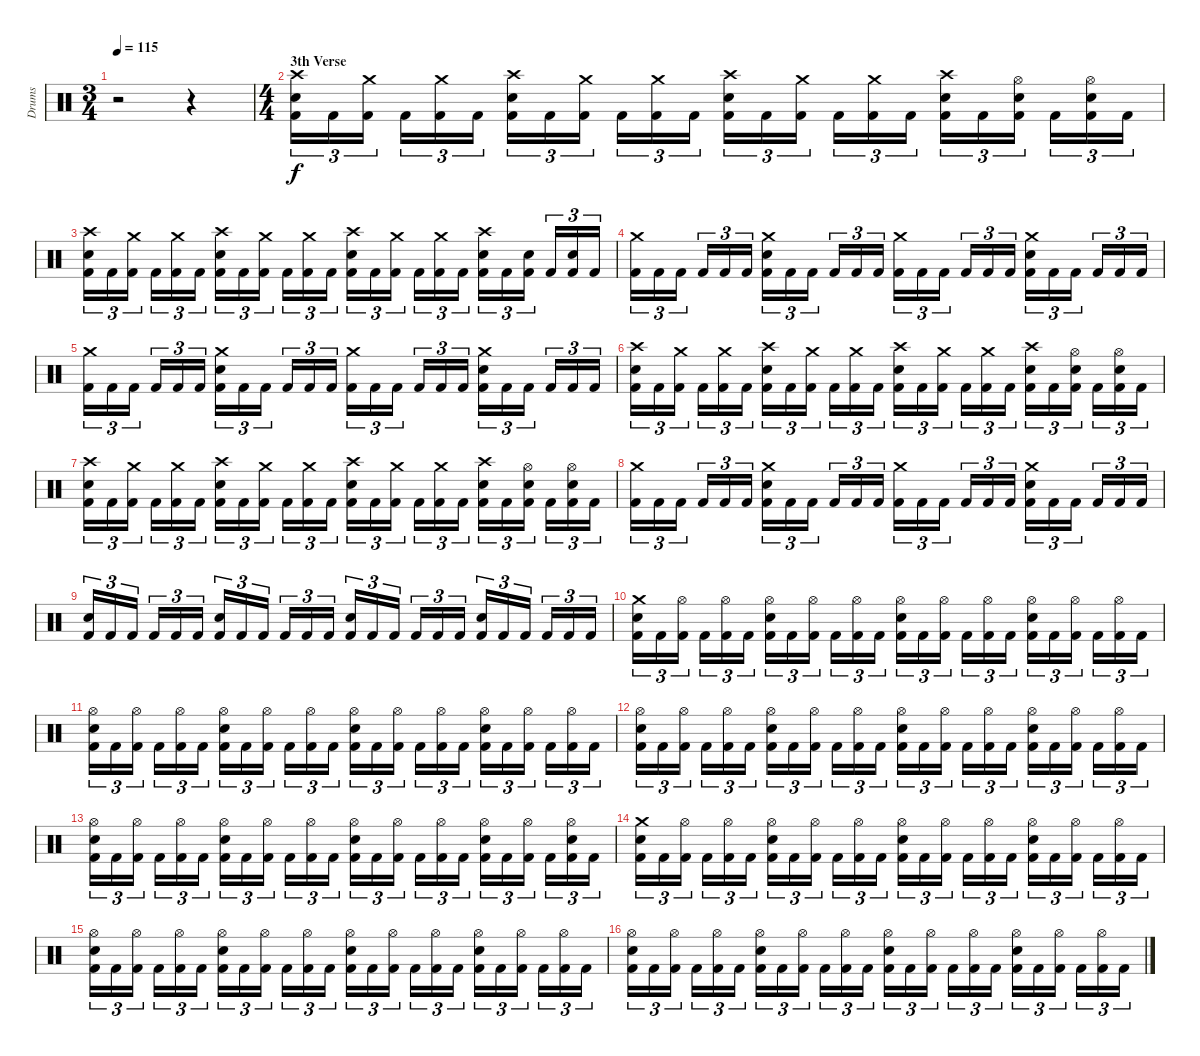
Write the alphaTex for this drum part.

\track ("Drums" "Drums") {instrument percussion}
\staff {score}
\articulation defaults
\ts (3 4)
\tempo 115
\clef neutral
\ks c
r.2{dy f} r.4 |
\ts (4 4)
\section ("" "3th Verse")
("Kick (hit) 2" "Electric Snare (hit)" "Crash high (hit)").16{tu (3 2)} "Kick (hit) 2".16{tu (3 2)} ("Kick (hit) 2" "Crash medium (hit)").16{tu (3 2)} "Kick (hit) 2".16{tu (3 2)} ("Kick (hit) 2" "Crash medium (hit)").16{tu (3 2)} "Kick (hit) 2".16{tu (3 2)} ("Kick (hit) 2" "Electric Snare (hit)" "Crash high (hit)").16{tu (3 2)} "Kick (hit) 2".16{tu (3 2)} ("Kick (hit) 2" "Crash medium (hit)").16{tu (3 2)} "Kick (hit) 2".16{tu (3 2)} ("Kick (hit) 2" "Crash medium (hit)").16{tu (3 2)} "Kick (hit) 2".16{tu (3 2)} ("Kick (hit) 2" "Electric Snare (hit)" "Crash high (hit)").16{tu (3 2)} "Kick (hit) 2".16{tu (3 2)} ("Kick (hit) 2" "Crash medium (hit)").16{tu (3 2)} "Kick (hit) 2".16{tu (3 2)} ("Kick (hit) 2" "Crash medium (hit)").16{tu (3 2)} "Kick (hit) 2".16{tu (3 2)} ("Kick (hit) 2" "Electric Snare (hit)" "Crash high (hit)").16{tu (3 2)} "Kick (hit) 2".16{tu (3 2)} ("Kick (hit) 2" "Electric Snare (hit)" "Hi-Hat (open)").16{tu (3 2)} "Kick (hit) 2".16{tu (3 2)} ("Kick (hit) 2" "Electric Snare (hit)" "Hi-Hat (open)").16{tu (3 2)} "Kick (hit) 2".16{tu (3 2)} |
("Kick (hit) 2" "Electric Snare (hit)" "Crash high (hit)").16{tu (3 2)} "Kick (hit) 2".16{tu (3 2)} ("Kick (hit) 2" "Crash medium (hit)").16{tu (3 2)} "Kick (hit) 2".16{tu (3 2)} ("Kick (hit) 2" "Crash medium (hit)").16{tu (3 2)} "Kick (hit) 2".16{tu (3 2)} ("Kick (hit) 2" "Electric Snare (hit)" "Crash high (hit)").16{tu (3 2)} "Kick (hit) 2".16{tu (3 2)} ("Kick (hit) 2" "Crash medium (hit)").16{tu (3 2)} "Kick (hit) 2".16{tu (3 2)} ("Kick (hit) 2" "Crash medium (hit)").16{tu (3 2)} "Kick (hit) 2".16{tu (3 2)} ("Kick (hit) 2" "Electric Snare (hit)" "Crash high (hit)").16{tu (3 2)} "Kick (hit) 2".16{tu (3 2)} ("Kick (hit) 2" "Crash medium (hit)").16{tu (3 2)} "Kick (hit) 2".16{tu (3 2)} ("Kick (hit) 2" "Crash medium (hit)").16{tu (3 2)} "Kick (hit) 2".16{tu (3 2)} ("Kick (hit) 2" "Electric Snare (hit)" "Crash high (hit)").16{tu (3 2)} "Kick (hit) 2".16{tu (3 2)} ("Kick (hit) 2" "Electric Snare (hit)").16{tu (3 2)} "Kick (hit) 2".16{tu (3 2)} ("Kick (hit) 2" "Electric Snare (hit)").16{tu (3 2)} "Kick (hit) 2".16{tu (3 2)} |
("Kick (hit) 2" "Crash medium (hit)").16{tu (3 2)} "Kick (hit) 2".16{tu (3 2)} "Kick (hit) 2".16{tu (3 2)} "Kick (hit) 2".16{tu (3 2)} "Kick (hit) 2".16{tu (3 2)} "Kick (hit) 2".16{tu (3 2)} ("Kick (hit) 2" "Electric Snare (hit)" "Crash medium (hit)").16{tu (3 2)} "Kick (hit) 2".16{tu (3 2)} "Kick (hit) 2".16{tu (3 2)} "Kick (hit) 2".16{tu (3 2)} "Kick (hit) 2".16{tu (3 2)} "Kick (hit) 2".16{tu (3 2)} ("Kick (hit) 2" "Crash medium (hit)").16{tu (3 2)} "Kick (hit) 2".16{tu (3 2)} "Kick (hit) 2".16{tu (3 2)} "Kick (hit) 2".16{tu (3 2)} "Kick (hit) 2".16{tu (3 2)} "Kick (hit) 2".16{tu (3 2)} ("Kick (hit) 2" "Electric Snare (hit)" "Crash medium (hit)").16{tu (3 2)} "Kick (hit) 2".16{tu (3 2)} "Kick (hit) 2".16{tu (3 2)} "Kick (hit) 2".16{tu (3 2)} "Kick (hit) 2".16{tu (3 2)} "Kick (hit) 2".16{tu (3 2)} |
("Kick (hit) 2" "Crash medium (hit)").16{tu (3 2)} "Kick (hit) 2".16{tu (3 2)} "Kick (hit) 2".16{tu (3 2)} "Kick (hit) 2".16{tu (3 2)} "Kick (hit) 2".16{tu (3 2)} "Kick (hit) 2".16{tu (3 2)} ("Kick (hit) 2" "Electric Snare (hit)" "Crash medium (hit)").16{tu (3 2)} "Kick (hit) 2".16{tu (3 2)} "Kick (hit) 2".16{tu (3 2)} "Kick (hit) 2".16{tu (3 2)} "Kick (hit) 2".16{tu (3 2)} "Kick (hit) 2".16{tu (3 2)} ("Kick (hit) 2" "Crash medium (hit)").16{tu (3 2)} "Kick (hit) 2".16{tu (3 2)} "Kick (hit) 2".16{tu (3 2)} "Kick (hit) 2".16{tu (3 2)} "Kick (hit) 2".16{tu (3 2)} "Kick (hit) 2".16{tu (3 2)} ("Kick (hit) 2" "Electric Snare (hit)" "Crash medium (hit)").16{tu (3 2)} "Kick (hit) 2".16{tu (3 2)} "Kick (hit) 2".16{tu (3 2)} "Kick (hit) 2".16{tu (3 2)} "Kick (hit) 2".16{tu (3 2)} "Kick (hit) 2".16{tu (3 2)} |
("Kick (hit) 2" "Electric Snare (hit)" "Crash high (hit)").16{tu (3 2)} "Kick (hit) 2".16{tu (3 2)} ("Kick (hit) 2" "Crash medium (hit)").16{tu (3 2)} "Kick (hit) 2".16{tu (3 2)} ("Kick (hit) 2" "Crash medium (hit)").16{tu (3 2)} "Kick (hit) 2".16{tu (3 2)} ("Kick (hit) 2" "Electric Snare (hit)" "Crash high (hit)").16{tu (3 2)} "Kick (hit) 2".16{tu (3 2)} ("Kick (hit) 2" "Crash medium (hit)").16{tu (3 2)} "Kick (hit) 2".16{tu (3 2)} ("Kick (hit) 2" "Crash medium (hit)").16{tu (3 2)} "Kick (hit) 2".16{tu (3 2)} ("Kick (hit) 2" "Electric Snare (hit)" "Crash high (hit)").16{tu (3 2)} "Kick (hit) 2".16{tu (3 2)} ("Kick (hit) 2" "Crash medium (hit)").16{tu (3 2)} "Kick (hit) 2".16{tu (3 2)} ("Kick (hit) 2" "Crash medium (hit)").16{tu (3 2)} "Kick (hit) 2".16{tu (3 2)} ("Kick (hit) 2" "Electric Snare (hit)" "Crash high (hit)").16{tu (3 2)} "Kick (hit) 2".16{tu (3 2)} ("Kick (hit) 2" "Electric Snare (hit)" "Hi-Hat (open)").16{tu (3 2)} "Kick (hit) 2".16{tu (3 2)} ("Kick (hit) 2" "Electric Snare (hit)" "Hi-Hat (open)").16{tu (3 2)} "Kick (hit) 2".16{tu (3 2)} |
("Kick (hit) 2" "Electric Snare (hit)" "Crash high (hit)").16{tu (3 2)} "Kick (hit) 2".16{tu (3 2)} ("Kick (hit) 2" "Crash medium (hit)").16{tu (3 2)} "Kick (hit) 2".16{tu (3 2)} ("Kick (hit) 2" "Crash medium (hit)").16{tu (3 2)} "Kick (hit) 2".16{tu (3 2)} ("Kick (hit) 2" "Electric Snare (hit)" "Crash high (hit)").16{tu (3 2)} "Kick (hit) 2".16{tu (3 2)} ("Kick (hit) 2" "Crash medium (hit)").16{tu (3 2)} "Kick (hit) 2".16{tu (3 2)} ("Kick (hit) 2" "Crash medium (hit)").16{tu (3 2)} "Kick (hit) 2".16{tu (3 2)} ("Kick (hit) 2" "Electric Snare (hit)" "Crash high (hit)").16{tu (3 2)} "Kick (hit) 2".16{tu (3 2)} ("Kick (hit) 2" "Crash medium (hit)").16{tu (3 2)} "Kick (hit) 2".16{tu (3 2)} ("Kick (hit) 2" "Crash medium (hit)").16{tu (3 2)} "Kick (hit) 2".16{tu (3 2)} ("Kick (hit) 2" "Electric Snare (hit)" "Crash high (hit)").16{tu (3 2)} "Kick (hit) 2".16{tu (3 2)} ("Kick (hit) 2" "Electric Snare (hit)" "Hi-Hat (open)").16{tu (3 2)} "Kick (hit) 2".16{tu (3 2)} ("Kick (hit) 2" "Electric Snare (hit)" "Hi-Hat (open)").16{tu (3 2)} "Kick (hit) 2".16{tu (3 2)} |
("Kick (hit) 2" "Crash medium (hit)").16{tu (3 2)} "Kick (hit) 2".16{tu (3 2)} "Kick (hit) 2".16{tu (3 2)} "Kick (hit) 2".16{tu (3 2)} "Kick (hit) 2".16{tu (3 2)} "Kick (hit) 2".16{tu (3 2)} ("Kick (hit) 2" "Electric Snare (hit)" "Crash medium (hit)").16{tu (3 2)} "Kick (hit) 2".16{tu (3 2)} "Kick (hit) 2".16{tu (3 2)} "Kick (hit) 2".16{tu (3 2)} "Kick (hit) 2".16{tu (3 2)} "Kick (hit) 2".16{tu (3 2)} ("Kick (hit) 2" "Crash medium (hit)").16{tu (3 2)} "Kick (hit) 2".16{tu (3 2)} "Kick (hit) 2".16{tu (3 2)} "Kick (hit) 2".16{tu (3 2)} "Kick (hit) 2".16{tu (3 2)} "Kick (hit) 2".16{tu (3 2)} ("Kick (hit) 2" "Electric Snare (hit)" "Crash medium (hit)").16{tu (3 2)} "Kick (hit) 2".16{tu (3 2)} "Kick (hit) 2".16{tu (3 2)} "Kick (hit) 2".16{tu (3 2)} "Kick (hit) 2".16{tu (3 2)} "Kick (hit) 2".16{tu (3 2)} |
("Kick (hit) 2" "Electric Snare (hit)").16{tu (3 2)} "Kick (hit) 2".16{tu (3 2)} "Kick (hit) 2".16{tu (3 2)} "Kick (hit) 2".16{tu (3 2)} "Kick (hit) 2".16{tu (3 2)} "Kick (hit) 2".16{tu (3 2)} ("Kick (hit) 2" "Electric Snare (hit)").16{tu (3 2)} "Kick (hit) 2".16{tu (3 2)} "Kick (hit) 2".16{tu (3 2)} "Kick (hit) 2".16{tu (3 2)} "Kick (hit) 2".16{tu (3 2)} "Kick (hit) 2".16{tu (3 2)} ("Kick (hit) 2" "Electric Snare (hit)").16{tu (3 2)} "Kick (hit) 2".16{tu (3 2)} "Kick (hit) 2".16{tu (3 2)} "Kick (hit) 2".16{tu (3 2)} "Kick (hit) 2".16{tu (3 2)} "Kick (hit) 2".16{tu (3 2)} ("Kick (hit) 2" "Electric Snare (hit)").16{tu (3 2)} "Kick (hit) 2".16{tu (3 2)} "Kick (hit) 2".16{tu (3 2)} "Kick (hit) 2".16{tu (3 2)} "Kick (hit) 2".16{tu (3 2)} "Kick (hit) 2".16{tu (3 2)} |
("Kick (hit) 2" "Electric Snare (hit)" "Crash medium (hit)").16{tu (3 2)} "Kick (hit) 2".16{tu (3 2)} ("Kick (hit) 2" "Hi-Hat (open)").16{tu (3 2)} "Kick (hit) 2".16{tu (3 2)} ("Kick (hit) 2" "Hi-Hat (open)").16{tu (3 2)} "Kick (hit) 2".16{tu (3 2)} ("Kick (hit) 2" "Electric Snare (hit)" "Hi-Hat (open)").16{tu (3 2)} "Kick (hit) 2".16{tu (3 2)} ("Kick (hit) 2" "Hi-Hat (open)").16{tu (3 2)} "Kick (hit) 2".16{tu (3 2)} ("Kick (hit) 2" "Hi-Hat (open)").16{tu (3 2)} "Kick (hit) 2".16{tu (3 2)} ("Kick (hit) 2" "Electric Snare (hit)" "Hi-Hat (open)").16{tu (3 2)} "Kick (hit) 2".16{tu (3 2)} ("Kick (hit) 2" "Hi-Hat (open)").16{tu (3 2)} "Kick (hit) 2".16{tu (3 2)} ("Kick (hit) 2" "Hi-Hat (open)").16{tu (3 2)} "Kick (hit) 2".16{tu (3 2)} ("Kick (hit) 2" "Electric Snare (hit)" "Hi-Hat (open)").16{tu (3 2)} "Kick (hit) 2".16{tu (3 2)} ("Kick (hit) 2" "Hi-Hat (open)").16{tu (3 2)} "Kick (hit) 2".16{tu (3 2)} ("Kick (hit) 2" "Hi-Hat (open)").16{tu (3 2)} "Kick (hit) 2".16{tu (3 2)} |
("Kick (hit) 2" "Electric Snare (hit)" "Hi-Hat (open)").16{tu (3 2)} "Kick (hit) 2".16{tu (3 2)} ("Kick (hit) 2" "Hi-Hat (open)").16{tu (3 2)} "Kick (hit) 2".16{tu (3 2)} ("Kick (hit) 2" "Hi-Hat (open)").16{tu (3 2)} "Kick (hit) 2".16{tu (3 2)} ("Kick (hit) 2" "Electric Snare (hit)" "Hi-Hat (open)").16{tu (3 2)} "Kick (hit) 2".16{tu (3 2)} ("Kick (hit) 2" "Hi-Hat (open)").16{tu (3 2)} "Kick (hit) 2".16{tu (3 2)} ("Kick (hit) 2" "Hi-Hat (open)").16{tu (3 2)} "Kick (hit) 2".16{tu (3 2)} ("Kick (hit) 2" "Electric Snare (hit)" "Hi-Hat (open)").16{tu (3 2)} "Kick (hit) 2".16{tu (3 2)} ("Kick (hit) 2" "Hi-Hat (open)").16{tu (3 2)} "Kick (hit) 2".16{tu (3 2)} ("Kick (hit) 2" "Hi-Hat (open)").16{tu (3 2)} "Kick (hit) 2".16{tu (3 2)} ("Kick (hit) 2" "Electric Snare (hit)" "Hi-Hat (open)").16{tu (3 2)} "Kick (hit) 2".16{tu (3 2)} ("Kick (hit) 2" "Hi-Hat (open)").16{tu (3 2)} "Kick (hit) 2".16{tu (3 2)} ("Kick (hit) 2" "Hi-Hat (open)").16{tu (3 2)} "Kick (hit) 2".16{tu (3 2)} |
("Kick (hit) 2" "Electric Snare (hit)" "Hi-Hat (open)").16{tu (3 2)} "Kick (hit) 2".16{tu (3 2)} ("Kick (hit) 2" "Hi-Hat (open)").16{tu (3 2)} "Kick (hit) 2".16{tu (3 2)} ("Kick (hit) 2" "Hi-Hat (open)").16{tu (3 2)} "Kick (hit) 2".16{tu (3 2)} ("Kick (hit) 2" "Electric Snare (hit)" "Hi-Hat (open)").16{tu (3 2)} "Kick (hit) 2".16{tu (3 2)} ("Kick (hit) 2" "Hi-Hat (open)").16{tu (3 2)} "Kick (hit) 2".16{tu (3 2)} ("Kick (hit) 2" "Hi-Hat (open)").16{tu (3 2)} "Kick (hit) 2".16{tu (3 2)} ("Kick (hit) 2" "Electric Snare (hit)" "Hi-Hat (open)").16{tu (3 2)} "Kick (hit) 2".16{tu (3 2)} ("Kick (hit) 2" "Hi-Hat (open)").16{tu (3 2)} "Kick (hit) 2".16{tu (3 2)} ("Kick (hit) 2" "Hi-Hat (open)").16{tu (3 2)} "Kick (hit) 2".16{tu (3 2)} ("Kick (hit) 2" "Electric Snare (hit)" "Hi-Hat (open)").16{tu (3 2)} "Kick (hit) 2".16{tu (3 2)} ("Kick (hit) 2" "Hi-Hat (open)").16{tu (3 2)} "Kick (hit) 2".16{tu (3 2)} ("Kick (hit) 2" "Hi-Hat (open)").16{tu (3 2)} "Kick (hit) 2".16{tu (3 2)} |
("Kick (hit) 2" "Electric Snare (hit)" "Hi-Hat (open)").16{tu (3 2)} "Kick (hit) 2".16{tu (3 2)} ("Kick (hit) 2" "Hi-Hat (open)").16{tu (3 2)} "Kick (hit) 2".16{tu (3 2)} ("Kick (hit) 2" "Hi-Hat (open)").16{tu (3 2)} "Kick (hit) 2".16{tu (3 2)} ("Kick (hit) 2" "Electric Snare (hit)" "Hi-Hat (open)").16{tu (3 2)} "Kick (hit) 2".16{tu (3 2)} ("Kick (hit) 2" "Hi-Hat (open)").16{tu (3 2)} "Kick (hit) 2".16{tu (3 2)} ("Kick (hit) 2" "Hi-Hat (open)").16{tu (3 2)} "Kick (hit) 2".16{tu (3 2)} ("Kick (hit) 2" "Electric Snare (hit)" "Hi-Hat (open)").16{tu (3 2)} "Kick (hit) 2".16{tu (3 2)} ("Kick (hit) 2" "Hi-Hat (open)").16{tu (3 2)} "Kick (hit) 2".16{tu (3 2)} ("Kick (hit) 2" "Hi-Hat (open)").16{tu (3 2)} "Kick (hit) 2".16{tu (3 2)} ("Kick (hit) 2" "Electric Snare (hit)" "Hi-Hat (open)").16{tu (3 2)} "Kick (hit) 2".16{tu (3 2)} ("Kick (hit) 2" "Hi-Hat (open)").16{tu (3 2)} "Kick (hit) 2".16{tu (3 2)} ("Kick (hit) 2" "Electric Snare (hit)" "Hi-Hat (open)").16{tu (3 2)} "Kick (hit) 2".16{tu (3 2)} |
("Kick (hit) 2" "Electric Snare (hit)" "Crash medium (hit)").16{tu (3 2)} "Kick (hit) 2".16{tu (3 2)} ("Kick (hit) 2" "Hi-Hat (open)").16{tu (3 2)} "Kick (hit) 2".16{tu (3 2)} ("Kick (hit) 2" "Hi-Hat (open)").16{tu (3 2)} "Kick (hit) 2".16{tu (3 2)} ("Kick (hit) 2" "Electric Snare (hit)" "Hi-Hat (open)").16{tu (3 2)} "Kick (hit) 2".16{tu (3 2)} ("Kick (hit) 2" "Hi-Hat (open)").16{tu (3 2)} "Kick (hit) 2".16{tu (3 2)} ("Kick (hit) 2" "Hi-Hat (open)").16{tu (3 2)} "Kick (hit) 2".16{tu (3 2)} ("Kick (hit) 2" "Electric Snare (hit)" "Hi-Hat (open)").16{tu (3 2)} "Kick (hit) 2".16{tu (3 2)} ("Kick (hit) 2" "Hi-Hat (open)").16{tu (3 2)} "Kick (hit) 2".16{tu (3 2)} ("Kick (hit) 2" "Hi-Hat (open)").16{tu (3 2)} "Kick (hit) 2".16{tu (3 2)} ("Kick (hit) 2" "Electric Snare (hit)" "Hi-Hat (open)").16{tu (3 2)} "Kick (hit) 2".16{tu (3 2)} ("Kick (hit) 2" "Hi-Hat (open)").16{tu (3 2)} "Kick (hit) 2".16{tu (3 2)} ("Kick (hit) 2" "Hi-Hat (open)").16{tu (3 2)} "Kick (hit) 2".16{tu (3 2)} |
("Kick (hit) 2" "Electric Snare (hit)" "Hi-Hat (open)").16{tu (3 2)} "Kick (hit) 2".16{tu (3 2)} ("Kick (hit) 2" "Hi-Hat (open)").16{tu (3 2)} "Kick (hit) 2".16{tu (3 2)} ("Kick (hit) 2" "Hi-Hat (open)").16{tu (3 2)} "Kick (hit) 2".16{tu (3 2)} ("Kick (hit) 2" "Electric Snare (hit)" "Hi-Hat (open)").16{tu (3 2)} "Kick (hit) 2".16{tu (3 2)} ("Kick (hit) 2" "Hi-Hat (open)").16{tu (3 2)} "Kick (hit) 2".16{tu (3 2)} ("Kick (hit) 2" "Hi-Hat (open)").16{tu (3 2)} "Kick (hit) 2".16{tu (3 2)} ("Kick (hit) 2" "Electric Snare (hit)" "Hi-Hat (open)").16{tu (3 2)} "Kick (hit) 2".16{tu (3 2)} ("Kick (hit) 2" "Hi-Hat (open)").16{tu (3 2)} "Kick (hit) 2".16{tu (3 2)} ("Kick (hit) 2" "Hi-Hat (open)").16{tu (3 2)} "Kick (hit) 2".16{tu (3 2)} ("Kick (hit) 2" "Electric Snare (hit)" "Hi-Hat (open)").16{tu (3 2)} "Kick (hit) 2".16{tu (3 2)} ("Kick (hit) 2" "Hi-Hat (open)").16{tu (3 2)} "Kick (hit) 2".16{tu (3 2)} ("Kick (hit) 2" "Hi-Hat (open)").16{tu (3 2)} "Kick (hit) 2".16{tu (3 2)} |
("Kick (hit) 2" "Electric Snare (hit)" "Hi-Hat (open)").16{tu (3 2)} "Kick (hit) 2".16{tu (3 2)} ("Kick (hit) 2" "Hi-Hat (open)").16{tu (3 2)} "Kick (hit) 2".16{tu (3 2)} ("Kick (hit) 2" "Hi-Hat (open)").16{tu (3 2)} "Kick (hit) 2".16{tu (3 2)} ("Kick (hit) 2" "Electric Snare (hit)" "Hi-Hat (open)").16{tu (3 2)} "Kick (hit) 2".16{tu (3 2)} ("Kick (hit) 2" "Hi-Hat (open)").16{tu (3 2)} "Kick (hit) 2".16{tu (3 2)} ("Kick (hit) 2" "Hi-Hat (open)").16{tu (3 2)} "Kick (hit) 2".16{tu (3 2)} ("Kick (hit) 2" "Electric Snare (hit)" "Hi-Hat (open)").16{tu (3 2)} "Kick (hit) 2".16{tu (3 2)} ("Kick (hit) 2" "Hi-Hat (open)").16{tu (3 2)} "Kick (hit) 2".16{tu (3 2)} ("Kick (hit) 2" "Hi-Hat (open)").16{tu (3 2)} "Kick (hit) 2".16{tu (3 2)} ("Kick (hit) 2" "Electric Snare (hit)" "Hi-Hat (open)").16{tu (3 2)} "Kick (hit) 2".16{tu (3 2)} ("Kick (hit) 2" "Hi-Hat (open)").16{tu (3 2)} "Kick (hit) 2".16{tu (3 2)} ("Kick (hit) 2" "Hi-Hat (open)").16{tu (3 2)} "Kick (hit) 2".16{tu (3 2)}
